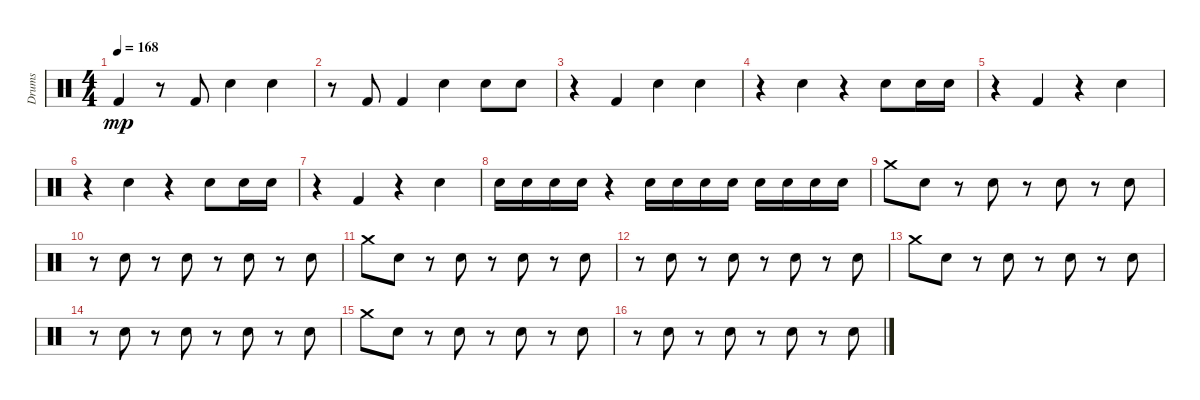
\track ("Drums" "Drums") {instrument percussion}
\staff {score}
\articulation defaults
\ts (4 4)
\tempo 168
\clef neutral
\ks c "Kick (hit) 2".4{dy mp}
r.8 "Kick (hit) 2".8 "Snare (hit) 2".4 "Snare (hit) 2".4 |
r.8 "Kick (hit) 2".8 "Kick (hit) 2".4 "Snare (hit) 2".4 "Snare (hit) 2".8 "Snare (hit) 2".8 |
r.4 "Kick (hit) 2".4 "Snare (hit) 2".4 "Snare (hit) 2".4 |
r.4 "Snare (hit) 2".4 r.4 "Snare (hit) 2".8 "Snare (hit) 2".16 "Snare (hit) 2".16 |
r.4 "Kick (hit) 2".4 r.4 "Snare (hit) 2".4 |
r.4 "Snare (hit) 2".4 r.4 "Snare (hit) 2".8 "Snare (hit) 2".16 "Snare (hit) 2".16 |
r.4 "Kick (hit) 2".4 r.4 "Snare (hit) 2".4 |
"Snare (hit) 2".16 "Snare (hit) 2".16 "Snare (hit) 2".16 "Snare (hit) 2".16 r.4 "Snare (hit) 2".16 "Snare (hit) 2".16 "Snare (hit) 2".16 "Snare (hit) 2".16 "Snare (hit) 2".16 "Snare (hit) 2".16 "Snare (hit) 2".16 "Snare (hit) 2".16 |
"Crash medium (hit)".8 "Snare (hit) 2".8 r.8 "Snare (hit) 2".8 r.8 "Snare (hit) 2".8 r.8 "Snare (hit) 2".8 |
r.8 "Snare (hit) 2".8 r.8 "Snare (hit) 2".8 r.8 "Snare (hit) 2".8 r.8 "Snare (hit) 2".8 |
"Crash medium (hit)".8 "Snare (hit) 2".8 r.8 "Snare (hit) 2".8 r.8 "Snare (hit) 2".8 r.8 "Snare (hit) 2".8 |
r.8 "Snare (hit) 2".8 r.8 "Snare (hit) 2".8 r.8 "Snare (hit) 2".8 r.8 "Snare (hit) 2".8 |
"Crash medium (hit)".8 "Snare (hit) 2".8 r.8 "Snare (hit) 2".8 r.8 "Snare (hit) 2".8 r.8 "Snare (hit) 2".8 |
r.8 "Snare (hit) 2".8 r.8 "Snare (hit) 2".8 r.8 "Snare (hit) 2".8 r.8 "Snare (hit) 2".8 |
"Crash medium (hit)".8 "Snare (hit) 2".8 r.8 "Snare (hit) 2".8 r.8 "Snare (hit) 2".8 r.8 "Snare (hit) 2".8 |
r.8 "Snare (hit) 2".8 r.8 "Snare (hit) 2".8 r.8 "Snare (hit) 2".8 r.8 "Snare (hit) 2".8
